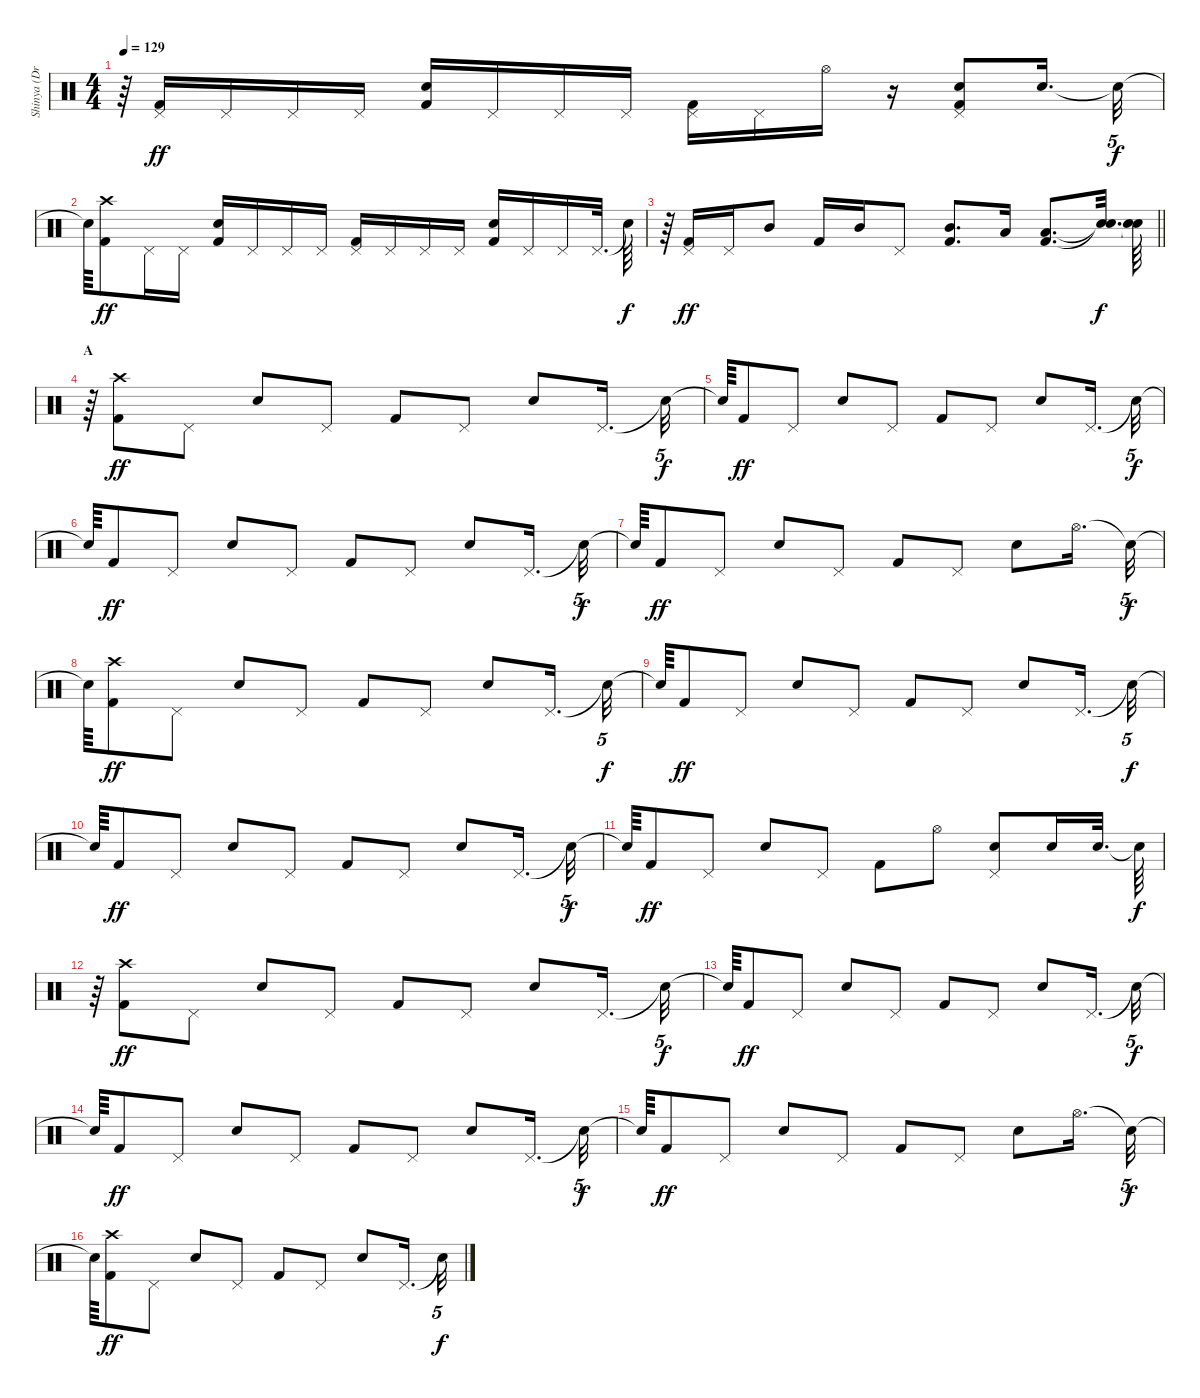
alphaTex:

\track ("Shinya (Drums)" "Shinya (Dr") {instrument percussion}
\staff {score}
\articulation defaults
\ts (4 4)
\tempo 129
\clef neutral
\ks c
r.64{dy f} ("Kick (hit) 2" "Pedal Hi-Hat (hit)").16{dy ff} "Pedal Hi-Hat (hit)".16 "Pedal Hi-Hat (hit)".16 "Pedal Hi-Hat (hit)".16 ("Electric Snare (hit)" "Kick (hit) 2").16 "Pedal Hi-Hat (hit)".16 "Pedal Hi-Hat (hit)".16 "Pedal Hi-Hat (hit)".16 ("Pedal Hi-Hat (hit)" "Kick (hit) 2").16 "Pedal Hi-Hat (hit)".16 "Hi-Hat (open)".16 r.16 ("Kick (hit) 2" "Electric Snare (hit)" "Pedal Hi-Hat (hit)").8 "Electric Snare (hit)".16{d} "Snare (hit)"{t}.32{tu (5 4) dy f} |
"Snare (hit)"{t}.64 ("Crash high (hit)" "Kick (hit) 2").8{dy ff} "Pedal Hi-Hat (hit)".16 "Pedal Hi-Hat (hit)".16 ("Electric Snare (hit)" "Kick (hit) 2").16 "Pedal Hi-Hat (hit)".16 "Pedal Hi-Hat (hit)".16 "Pedal Hi-Hat (hit)".16 ("Pedal Hi-Hat (hit)" "Kick (hit) 2").16 "Pedal Hi-Hat (hit)".16 "Pedal Hi-Hat (hit)".16 "Pedal Hi-Hat (hit)".16 ("Electric Snare (hit)" "Kick (hit) 2").16 "Pedal Hi-Hat (hit)".16 "Pedal Hi-Hat (hit)".16 "Pedal Hi-Hat (hit)".32{d} "Snare (hit)"{t}.64{dy f} |
\barLineRight lightlight
r.64 ("Kick (hit) 2" "Pedal Hi-Hat (hit)").16{dy ff} "Pedal Hi-Hat (hit)".16 "Mid Tom (hit)".8 "Kick (hit) 2".16 "Mid Tom (hit)".16 "Pedal Hi-Hat (hit)".8 ("Kick (hit) 2" "Mid Tom (hit)").8{d} "Low Tom (hit)".16 ("Kick (hit) 2" "Low Tom (hit)").8{d} ("Snare (hit)"{t} "Snare (hit)"{t}).32{d dy f} ("Snare (hit)"{t} "Snare (hit)"{t}).64 |
\section ("" "A")
r.64 ("Crash high (hit)" "Kick (hit) 2").8{dy ff} "Pedal Hi-Hat (hit)".8 "Electric Snare (hit)".8 "Pedal Hi-Hat (hit)".8 "Kick (hit) 2".8 "Pedal Hi-Hat (hit)".8 "Electric Snare (hit)".8 "Pedal Hi-Hat (hit)".16{d} "Snare (hit)"{t}.32{tu (5 4) dy f} |
"Snare (hit)"{t}.64 "Kick (hit) 2".8{dy ff} "Pedal Hi-Hat (hit)".8 "Electric Snare (hit)".8 "Pedal Hi-Hat (hit)".8 "Kick (hit) 2".8 "Pedal Hi-Hat (hit)".8 "Electric Snare (hit)".8 "Pedal Hi-Hat (hit)".16{d} "Snare (hit)"{t}.32{tu (5 4) dy f} |
"Snare (hit)"{t}.64 "Kick (hit) 2".8{dy ff} "Pedal Hi-Hat (hit)".8 "Electric Snare (hit)".8 "Pedal Hi-Hat (hit)".8 "Kick (hit) 2".8 "Pedal Hi-Hat (hit)".8 "Electric Snare (hit)".8 "Pedal Hi-Hat (hit)".16{d} "Snare (hit)"{t}.32{tu (5 4) dy f} |
"Snare (hit)"{t}.64 "Kick (hit) 2".8{dy ff} "Pedal Hi-Hat (hit)".8 "Electric Snare (hit)".8 "Pedal Hi-Hat (hit)".8 "Kick (hit) 2".8 "Pedal Hi-Hat (hit)".8 "Electric Snare (hit)".8 "Hi-Hat (open)".16{d} "Snare (hit)"{t}.32{tu (5 4) dy f} |
"Snare (hit)"{t}.64 ("Crash high (hit)" "Kick (hit) 2").8{dy ff} "Pedal Hi-Hat (hit)".8 "Electric Snare (hit)".8 "Pedal Hi-Hat (hit)".8 "Kick (hit) 2".8 "Pedal Hi-Hat (hit)".8 "Electric Snare (hit)".8 "Pedal Hi-Hat (hit)".16{d} "Snare (hit)"{t}.32{tu (5 4) dy f} |
"Snare (hit)"{t}.64 "Kick (hit) 2".8{dy ff} "Pedal Hi-Hat (hit)".8 "Electric Snare (hit)".8 "Pedal Hi-Hat (hit)".8 "Kick (hit) 2".8 "Pedal Hi-Hat (hit)".8 "Electric Snare (hit)".8 "Pedal Hi-Hat (hit)".16{d} "Snare (hit)"{t}.32{tu (5 4) dy f} |
"Snare (hit)"{t}.64 "Kick (hit) 2".8{dy ff} "Pedal Hi-Hat (hit)".8 "Electric Snare (hit)".8 "Pedal Hi-Hat (hit)".8 "Kick (hit) 2".8 "Pedal Hi-Hat (hit)".8 "Electric Snare (hit)".8 "Pedal Hi-Hat (hit)".16{d} "Snare (hit)"{t}.32{tu (5 4) dy f} |
"Snare (hit)"{t}.64 "Kick (hit) 2".8{dy ff} "Pedal Hi-Hat (hit)".8 "Electric Snare (hit)".8 "Pedal Hi-Hat (hit)".8 "Kick (hit) 2".8 "Hi-Hat (open)".8 ("Electric Snare (hit)" "Pedal Hi-Hat (hit)").8 "Electric Snare (hit)".16 "Electric Snare (hit)".32{d} "Snare (hit)"{t}.64{dy f} |
r.64 ("Crash high (hit)" "Kick (hit) 2").8{dy ff} "Pedal Hi-Hat (hit)".8 "Electric Snare (hit)".8 "Pedal Hi-Hat (hit)".8 "Kick (hit) 2".8 "Pedal Hi-Hat (hit)".8 "Electric Snare (hit)".8 "Pedal Hi-Hat (hit)".16{d} "Snare (hit)"{t}.32{tu (5 4) dy f} |
"Snare (hit)"{t}.64 "Kick (hit) 2".8{dy ff} "Pedal Hi-Hat (hit)".8 "Electric Snare (hit)".8 "Pedal Hi-Hat (hit)".8 "Kick (hit) 2".8 "Pedal Hi-Hat (hit)".8 "Electric Snare (hit)".8 "Pedal Hi-Hat (hit)".16{d} "Snare (hit)"{t}.32{tu (5 4) dy f} |
"Snare (hit)"{t}.64 "Kick (hit) 2".8{dy ff} "Pedal Hi-Hat (hit)".8 "Electric Snare (hit)".8 "Pedal Hi-Hat (hit)".8 "Kick (hit) 2".8 "Pedal Hi-Hat (hit)".8 "Electric Snare (hit)".8 "Pedal Hi-Hat (hit)".16{d} "Snare (hit)"{t}.32{tu (5 4) dy f} |
"Snare (hit)"{t}.64 "Kick (hit) 2".8{dy ff} "Pedal Hi-Hat (hit)".8 "Electric Snare (hit)".8 "Pedal Hi-Hat (hit)".8 "Kick (hit) 2".8 "Pedal Hi-Hat (hit)".8 "Electric Snare (hit)".8 "Hi-Hat (open)".16{d} "Snare (hit)"{t}.32{tu (5 4) dy f} |
"Snare (hit)"{t}.64 ("Crash high (hit)" "Kick (hit) 2").8{dy ff} "Pedal Hi-Hat (hit)".8 "Electric Snare (hit)".8 "Pedal Hi-Hat (hit)".8 "Kick (hit) 2".8 "Pedal Hi-Hat (hit)".8 "Electric Snare (hit)".8 "Pedal Hi-Hat (hit)".16{d} "Snare (hit)"{t}.32{tu (5 4) dy f}
